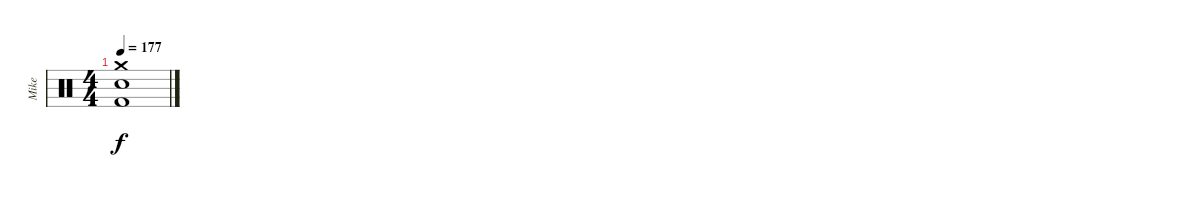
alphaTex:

\track ("Mike" "Mike") {instrument percussion}
\staff {score}
\articulation defaults
\ts (4 4)
\tempo 177
\clef neutral
\ks c
("Crash medium (hit)" "Electric Snare (hit)" "Kick (hit) 2").1{dy f}
